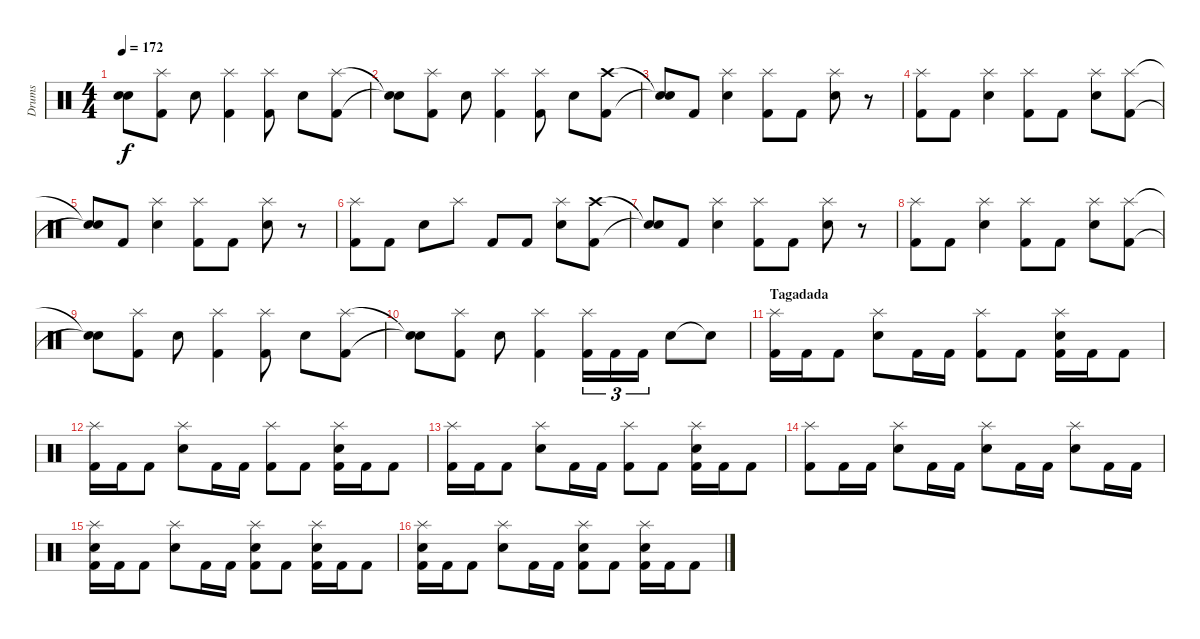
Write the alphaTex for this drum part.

\track ("Drums" "Drums") {instrument percussion}
\staff {score}
\articulation defaults
\ts (4 4)
\tempo 172
\clef neutral
\ks c
("Snare (hit)"{t} "Snare (hit)"{t}).8{dy f} ("Splash (hit)" "Kick (hit) 2").8 "Electric Snare (hit)".8 ("Splash (hit)" "Kick (hit) 2").4 ("Splash (hit)" "Kick (hit) 2").8 "Electric Snare (hit)".8 ("Splash (hit)" "Kick (hit) 2").8 |
("Snare (hit)"{t} "Snare (hit)"{t}).8 ("Splash (hit)" "Kick (hit) 2").8 "Electric Snare (hit)".8 ("Splash (hit)" "Kick (hit) 2").4 ("Splash (hit)" "Kick (hit) 2").8 "Electric Snare (hit)".8 ("Crash high (hit)" "Kick (hit) 2").8 |
("Snare (hit)"{t} "Snare (hit)"{t}).8 "Kick (hit) 2".8 ("Splash (hit)" "Electric Snare (hit)").4 ("Splash (hit)" "Kick (hit) 2").8 "Kick (hit) 2".8 ("Splash (hit)" "Electric Snare (hit)").8 r.8 |
("Splash (hit)" "Kick (hit) 2").8 "Kick (hit) 2".8 ("Splash (hit)" "Electric Snare (hit)").4 ("Splash (hit)" "Kick (hit) 2").8 "Kick (hit) 2".8 ("Splash (hit)" "Electric Snare (hit)").8 ("Splash (hit)" "Kick (hit) 2").8 |
("Snare (hit)"{t} "Snare (hit)"{t}).8 "Kick (hit) 2".8 ("Splash (hit)" "Electric Snare (hit)").4 ("Splash (hit)" "Kick (hit) 2").8 "Kick (hit) 2".8 ("Splash (hit)" "Electric Snare (hit)").8 r.8 |
("Splash (hit)" "Kick (hit) 2").8 "Kick (hit) 2".8 "Electric Snare (hit)".8 "Splash (hit)".8 "Kick (hit) 2".8 "Kick (hit) 2".8 ("Splash (hit)" "Electric Snare (hit)").8 ("Crash high (hit)" "Kick (hit) 2").8 |
("Snare (hit)"{t} "Snare (hit)"{t}).8 "Kick (hit) 2".8 ("Splash (hit)" "Electric Snare (hit)").4 ("Splash (hit)" "Kick (hit) 2").8 "Kick (hit) 2".8 ("Splash (hit)" "Electric Snare (hit)").8 r.8 |
("Splash (hit)" "Kick (hit) 2").8 "Kick (hit) 2".8 ("Splash (hit)" "Electric Snare (hit)").4 ("Splash (hit)" "Kick (hit) 2").8 "Kick (hit) 2".8 ("Splash (hit)" "Electric Snare (hit)").8 ("Splash (hit)" "Kick (hit) 2").8 |
("Snare (hit)"{t} "Snare (hit)"{t}).8 ("Splash (hit)" "Kick (hit) 2").8 "Electric Snare (hit)".8 ("Splash (hit)" "Kick (hit) 2").4 ("Splash (hit)" "Kick (hit) 2").8 "Electric Snare (hit)".8 ("Splash (hit)" "Kick (hit) 2").8 |
("Snare (hit)"{t} "Snare (hit)"{t}).8 ("Splash (hit)" "Kick (hit) 2").8 "Electric Snare (hit)".8 ("Splash (hit)" "Kick (hit) 2").4 ("Splash (hit)" "Kick (hit) 2").16{tu (3 2)} "Kick (hit) 2".16{tu (3 2)} "Kick (hit) 2".16{tu (3 2)} "Electric Snare (hit)".8 "Snare (hit)"{t}.8 |
\section ("" "Tagadada")
("Splash (hit)" "Kick (hit) 2").16 "Kick (hit) 2".16 "Kick (hit) 2".8 ("Splash (hit)" "Electric Snare (hit)").8 "Kick (hit) 2".16 "Kick (hit) 2".16 ("Splash (hit)" "Kick (hit) 2").8 "Kick (hit) 2".8 ("Splash (hit)" "Electric Snare (hit)" "Kick (hit) 2").16 "Kick (hit) 2".16 "Kick (hit) 2".8 |
("Splash (hit)" "Kick (hit) 2").16 "Kick (hit) 2".16 "Kick (hit) 2".8 ("Splash (hit)" "Electric Snare (hit)").8 "Kick (hit) 2".16 "Kick (hit) 2".16 ("Splash (hit)" "Kick (hit) 2").8 "Kick (hit) 2".8 ("Splash (hit)" "Electric Snare (hit)" "Kick (hit) 2").16 "Kick (hit) 2".16 "Kick (hit) 2".8 |
("Splash (hit)" "Kick (hit) 2").16 "Kick (hit) 2".16 "Kick (hit) 2".8 ("Splash (hit)" "Electric Snare (hit)").8 "Kick (hit) 2".16 "Kick (hit) 2".16 ("Splash (hit)" "Kick (hit) 2").8 "Kick (hit) 2".8 ("Splash (hit)" "Electric Snare (hit)" "Kick (hit) 2").16 "Kick (hit) 2".16 "Kick (hit) 2".8 |
("Splash (hit)" "Kick (hit) 2").8 "Kick (hit) 2".16 "Kick (hit) 2".16 ("Splash (hit)" "Electric Snare (hit)").8 "Kick (hit) 2".16 "Kick (hit) 2".16 ("Splash (hit)" "Electric Snare (hit)").8 "Kick (hit) 2".16 "Kick (hit) 2".16 ("Splash (hit)" "Electric Snare (hit)").8 "Kick (hit) 2".16 "Kick (hit) 2".16 |
("Splash (hit)" "Electric Snare (hit)" "Kick (hit) 2").16 "Kick (hit) 2".16 "Kick (hit) 2".8 ("Splash (hit)" "Electric Snare (hit)").8 "Kick (hit) 2".16 "Kick (hit) 2".16 ("Splash (hit)" "Electric Snare (hit)" "Kick (hit) 2").8 "Kick (hit) 2".8 ("Splash (hit)" "Electric Snare (hit)" "Kick (hit) 2").16 "Kick (hit) 2".16 "Kick (hit) 2".8 |
("Splash (hit)" "Electric Snare (hit)" "Kick (hit) 2").16 "Kick (hit) 2".16 "Kick (hit) 2".8 ("Splash (hit)" "Electric Snare (hit)").8 "Kick (hit) 2".16 "Kick (hit) 2".16 ("Splash (hit)" "Electric Snare (hit)" "Kick (hit) 2").8 "Kick (hit) 2".8 ("Splash (hit)" "Electric Snare (hit)" "Kick (hit) 2").16 "Kick (hit) 2".16 "Kick (hit) 2".8
